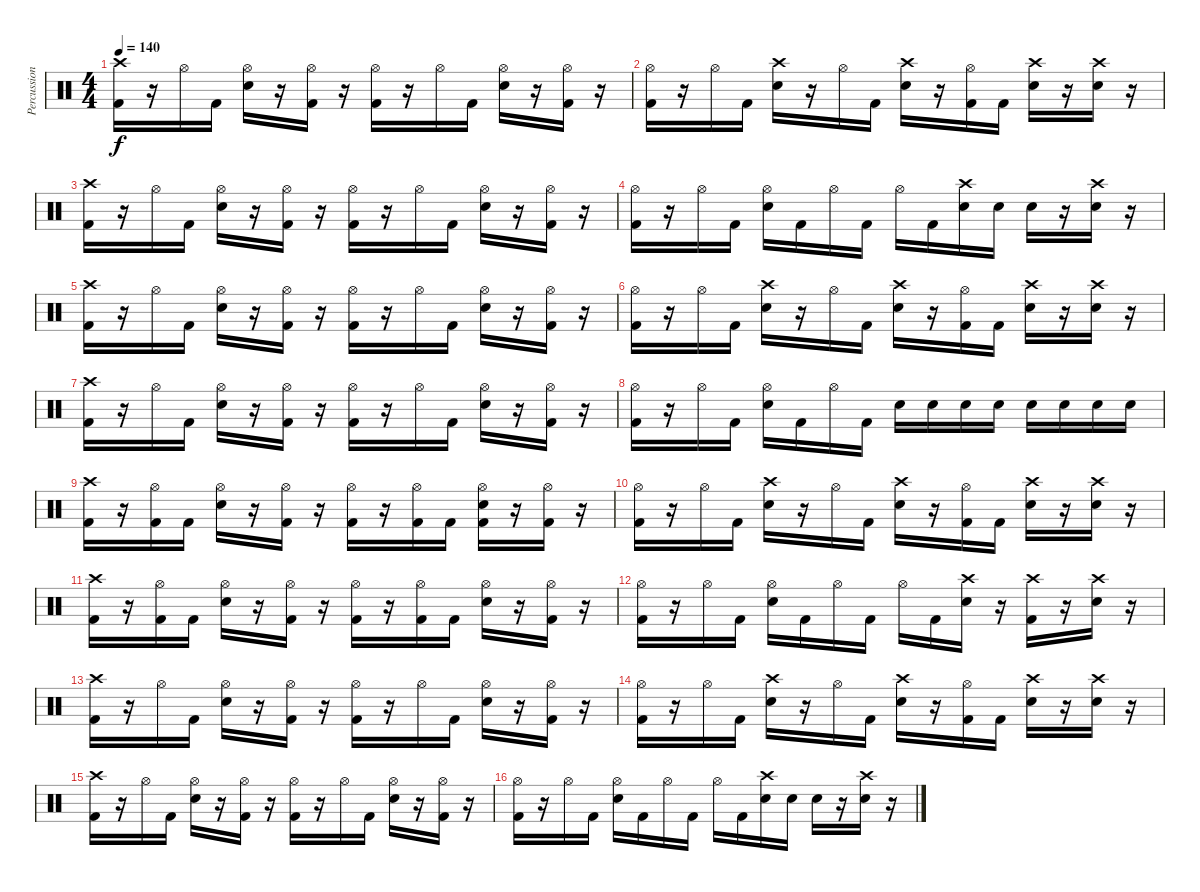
\track ("Percussion" "Percussion") {instrument percussion}
\staff {score}
\articulation defaults
\ts (4 4)
\tempo 140
\clef neutral
\ks c
("Crash high (hit)" "Kick (hit) 2").16{dy f} r.16 "Hi-Hat (open)".16 "Kick (hit) 2".16 ("Hi-Hat (open)" "Snare (hit) 2").16 r.16 ("Hi-Hat (open)" "Kick (hit) 2").16 r.16 ("Hi-Hat (open)" "Kick (hit) 2").16 r.16 "Hi-Hat (open)".16 "Kick (hit) 2".16 ("Hi-Hat (open)" "Snare (hit) 2").16 r.16 ("Hi-Hat (open)" "Kick (hit) 2").16 r.16 |
("Hi-Hat (open)" "Kick (hit) 2").16 r.16 "Hi-Hat (open)".16 "Kick (hit) 2".16 ("Crash high (hit)" "Snare (hit) 2").16 r.16 "Hi-Hat (open)".16 "Kick (hit) 2".16 ("Crash high (hit)" "Snare (hit) 2").16 r.16 ("Hi-Hat (open)" "Kick (hit) 2").16 "Kick (hit) 2".16 ("Crash high (hit)" "Snare (hit) 2").16 r.16 ("Crash high (hit)" "Snare (hit) 2").16 r.16 |
("Crash high (hit)" "Kick (hit) 2").16 r.16 "Hi-Hat (open)".16 "Kick (hit) 2".16 ("Hi-Hat (open)" "Snare (hit) 2").16 r.16 ("Hi-Hat (open)" "Kick (hit) 2").16 r.16 ("Hi-Hat (open)" "Kick (hit) 2").16 r.16 "Hi-Hat (open)".16 "Kick (hit) 2".16 ("Hi-Hat (open)" "Snare (hit) 2").16 r.16 ("Hi-Hat (open)" "Kick (hit) 2").16 r.16 |
("Hi-Hat (open)" "Kick (hit) 2").16 r.16 "Hi-Hat (open)".16 "Kick (hit) 2".16 ("Hi-Hat (open)" "Snare (hit) 2").16 "Kick (hit) 2".16 "Hi-Hat (open)".16 "Kick (hit) 2".16 "Hi-Hat (open)".16 "Kick (hit) 2".16 ("Crash high (hit)" "Snare (hit) 2").16 "Snare (hit) 2".16 "Snare (hit) 2".16 r.16 ("Crash high (hit)" "Snare (hit) 2").16 r.16 |
("Crash high (hit)" "Kick (hit) 2").16 r.16 "Hi-Hat (open)".16 "Kick (hit) 2".16 ("Hi-Hat (open)" "Snare (hit) 2").16 r.16 ("Hi-Hat (open)" "Kick (hit) 2").16 r.16 ("Hi-Hat (open)" "Kick (hit) 2").16 r.16 "Hi-Hat (open)".16 "Kick (hit) 2".16 ("Hi-Hat (open)" "Snare (hit) 2").16 r.16 ("Hi-Hat (open)" "Kick (hit) 2").16 r.16 |
("Hi-Hat (open)" "Kick (hit) 2").16 r.16 "Hi-Hat (open)".16 "Kick (hit) 2".16 ("Crash high (hit)" "Snare (hit) 2").16 r.16 "Hi-Hat (open)".16 "Kick (hit) 2".16 ("Crash high (hit)" "Snare (hit) 2").16 r.16 ("Hi-Hat (open)" "Kick (hit) 2").16 "Kick (hit) 2".16 ("Crash high (hit)" "Snare (hit) 2").16 r.16 ("Crash high (hit)" "Snare (hit) 2").16 r.16 |
("Crash high (hit)" "Kick (hit) 2").16 r.16 "Hi-Hat (open)".16 "Kick (hit) 2".16 ("Hi-Hat (open)" "Snare (hit) 2").16 r.16 ("Hi-Hat (open)" "Kick (hit) 2").16 r.16 ("Hi-Hat (open)" "Kick (hit) 2").16 r.16 "Hi-Hat (open)".16 "Kick (hit) 2".16 ("Hi-Hat (open)" "Snare (hit) 2").16 r.16 ("Hi-Hat (open)" "Kick (hit) 2").16 r.16 |
("Hi-Hat (open)" "Kick (hit) 2").16 r.16 "Hi-Hat (open)".16 "Kick (hit) 2".16 ("Hi-Hat (open)" "Snare (hit) 2").16 "Kick (hit) 2".16 "Hi-Hat (open)".16 "Kick (hit) 2".16 "Snare (hit) 2".16 "Snare (hit) 2".16 "Snare (hit) 2".16 "Snare (hit) 2".16 "Snare (hit) 2".16 "Snare (hit) 2".16 "Snare (hit) 2".16 "Snare (hit) 2".16 |
("Crash high (hit)" "Kick (hit) 2").16 r.16 ("Hi-Hat (open)" "Kick (hit) 2").16 "Kick (hit) 2".16 ("Hi-Hat (open)" "Snare (hit) 2").16 r.16 ("Hi-Hat (open)" "Kick (hit) 2").16 r.16 ("Hi-Hat (open)" "Kick (hit) 2").16 r.16 ("Hi-Hat (open)" "Kick (hit) 2").16 "Kick (hit) 2".16 ("Hi-Hat (open)" "Snare (hit) 2" "Kick (hit) 2").16 r.16 ("Hi-Hat (open)" "Kick (hit) 2").16 r.16 |
("Hi-Hat (open)" "Kick (hit) 2").16 r.16 "Hi-Hat (open)".16 "Kick (hit) 2".16 ("Crash high (hit)" "Snare (hit) 2").16 r.16 "Hi-Hat (open)".16 "Kick (hit) 2".16 ("Crash high (hit)" "Snare (hit) 2").16 r.16 ("Hi-Hat (open)" "Kick (hit) 2").16 "Kick (hit) 2".16 ("Crash high (hit)" "Snare (hit) 2").16 r.16 ("Crash high (hit)" "Snare (hit) 2").16 r.16 |
("Crash high (hit)" "Kick (hit) 2").16 r.16 ("Hi-Hat (open)" "Kick (hit) 2").16 "Kick (hit) 2".16 ("Hi-Hat (open)" "Snare (hit) 2").16 r.16 ("Hi-Hat (open)" "Kick (hit) 2").16 r.16 ("Hi-Hat (open)" "Kick (hit) 2").16 r.16 ("Hi-Hat (open)" "Kick (hit) 2").16 "Kick (hit) 2".16 ("Hi-Hat (open)" "Snare (hit) 2").16 r.16 ("Hi-Hat (open)" "Kick (hit) 2").16 r.16 |
("Hi-Hat (open)" "Kick (hit) 2").16 r.16 "Hi-Hat (open)".16 "Kick (hit) 2".16 ("Hi-Hat (open)" "Snare (hit) 2").16 "Kick (hit) 2".16 "Hi-Hat (open)".16 "Kick (hit) 2".16 "Hi-Hat (open)".16 "Kick (hit) 2".16 ("Crash high (hit)" "Snare (hit) 2").16 r.16 ("Crash high (hit)" "Kick (hit) 2").16 r.16 ("Crash high (hit)" "Snare (hit) 2").16 r.16 |
("Crash high (hit)" "Kick (hit) 2").16 r.16 "Hi-Hat (open)".16 "Kick (hit) 2".16 ("Hi-Hat (open)" "Snare (hit) 2").16 r.16 ("Hi-Hat (open)" "Kick (hit) 2").16 r.16 ("Hi-Hat (open)" "Kick (hit) 2").16 r.16 "Hi-Hat (open)".16 "Kick (hit) 2".16 ("Hi-Hat (open)" "Snare (hit) 2").16 r.16 ("Hi-Hat (open)" "Kick (hit) 2").16 r.16 |
("Hi-Hat (open)" "Kick (hit) 2").16 r.16 "Hi-Hat (open)".16 "Kick (hit) 2".16 ("Crash high (hit)" "Snare (hit) 2").16 r.16 "Hi-Hat (open)".16 "Kick (hit) 2".16 ("Crash high (hit)" "Snare (hit) 2").16 r.16 ("Hi-Hat (open)" "Kick (hit) 2").16 "Kick (hit) 2".16 ("Crash high (hit)" "Snare (hit) 2").16 r.16 ("Crash high (hit)" "Snare (hit) 2").16 r.16 |
("Crash high (hit)" "Kick (hit) 2").16 r.16 "Hi-Hat (open)".16 "Kick (hit) 2".16 ("Hi-Hat (open)" "Snare (hit) 2").16 r.16 ("Hi-Hat (open)" "Kick (hit) 2").16 r.16 ("Hi-Hat (open)" "Kick (hit) 2").16 r.16 "Hi-Hat (open)".16 "Kick (hit) 2".16 ("Hi-Hat (open)" "Snare (hit) 2").16 r.16 ("Hi-Hat (open)" "Kick (hit) 2").16 r.16 |
("Hi-Hat (open)" "Kick (hit) 2").16 r.16 "Hi-Hat (open)".16 "Kick (hit) 2".16 ("Hi-Hat (open)" "Snare (hit) 2").16 "Kick (hit) 2".16 "Hi-Hat (open)".16 "Kick (hit) 2".16 "Hi-Hat (open)".16 "Kick (hit) 2".16 ("Crash high (hit)" "Snare (hit) 2").16 "Snare (hit) 2".16 "Snare (hit) 2".16 r.16 ("Crash high (hit)" "Snare (hit) 2").16 r.16
